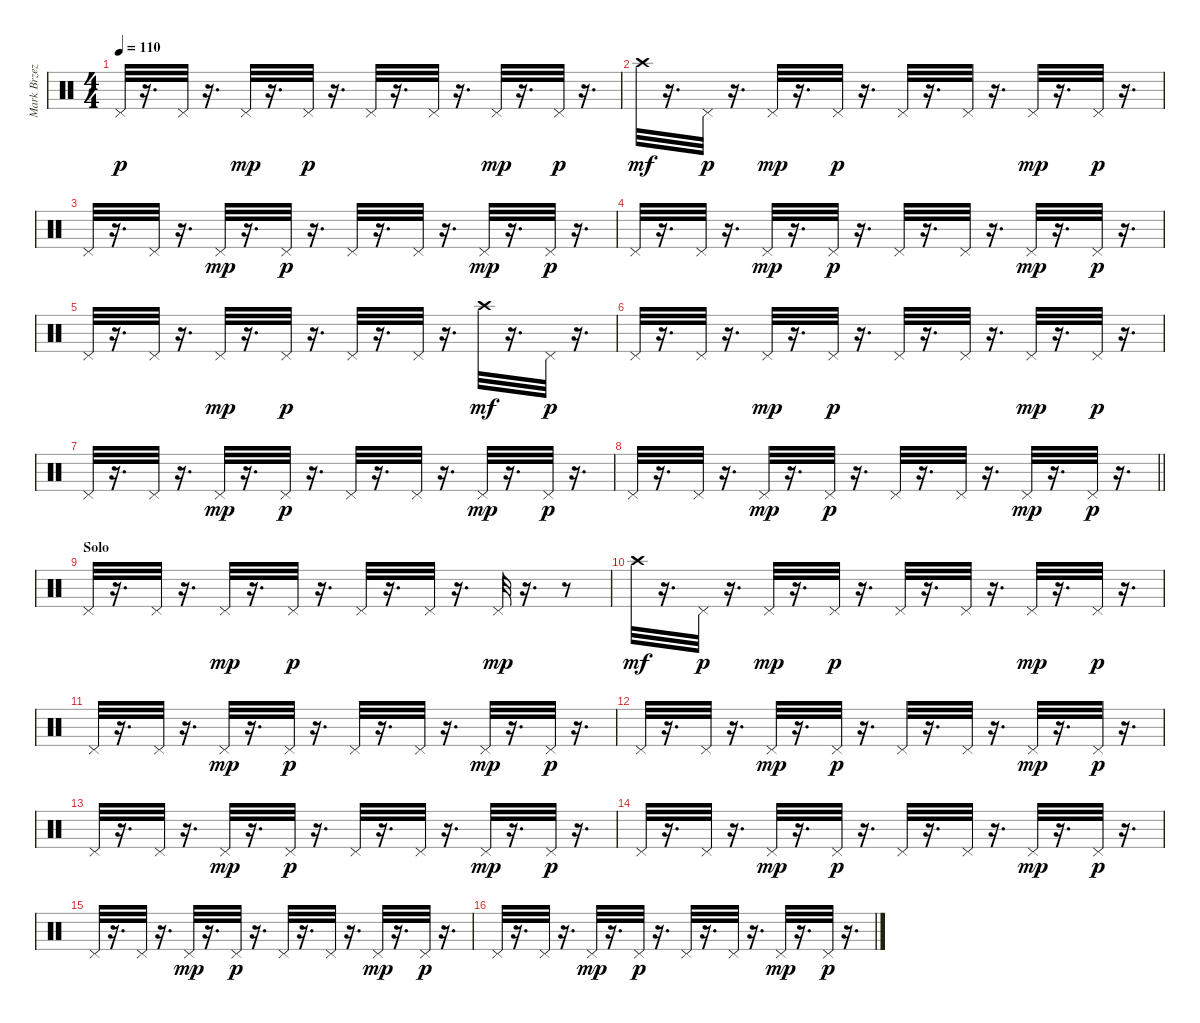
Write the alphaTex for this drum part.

\track ("Mark Brzezicki - Cymbal (Crash, Open & C" "Mark Brzez") {instrument percussion}
\staff {score}
\articulation defaults
\ts (4 4)
\tempo 110
\clef neutral
\ks c "Pedal Hi-Hat (hit)".32{dy p}
r.16{d} "Pedal Hi-Hat (hit)".32 r.16{d} "Pedal Hi-Hat (hit)".32{dy mp} r.16{d} "Pedal Hi-Hat (hit)".32{dy p} r.16{d} "Pedal Hi-Hat (hit)".32 r.16{d} "Pedal Hi-Hat (hit)".32 r.16{d} "Pedal Hi-Hat (hit)".32{dy mp} r.16{d} "Pedal Hi-Hat (hit)".32{dy p} r.16{d} |
"Crash high (hit)".32{dy mf} r.16{d} "Pedal Hi-Hat (hit)".32{dy p} r.16{d} "Pedal Hi-Hat (hit)".32{dy mp} r.16{d} "Pedal Hi-Hat (hit)".32{dy p} r.16{d} "Pedal Hi-Hat (hit)".32 r.16{d} "Pedal Hi-Hat (hit)".32 r.16{d} "Pedal Hi-Hat (hit)".32{dy mp} r.16{d} "Pedal Hi-Hat (hit)".32{dy p} r.16{d} |
"Pedal Hi-Hat (hit)".32 r.16{d} "Pedal Hi-Hat (hit)".32 r.16{d} "Pedal Hi-Hat (hit)".32{dy mp} r.16{d} "Pedal Hi-Hat (hit)".32{dy p} r.16{d} "Pedal Hi-Hat (hit)".32 r.16{d} "Pedal Hi-Hat (hit)".32 r.16{d} "Pedal Hi-Hat (hit)".32{dy mp} r.16{d} "Pedal Hi-Hat (hit)".32{dy p} r.16{d} |
"Pedal Hi-Hat (hit)".32 r.16{d} "Pedal Hi-Hat (hit)".32 r.16{d} "Pedal Hi-Hat (hit)".32{dy mp} r.16{d} "Pedal Hi-Hat (hit)".32{dy p} r.16{d} "Pedal Hi-Hat (hit)".32 r.16{d} "Pedal Hi-Hat (hit)".32 r.16{d} "Pedal Hi-Hat (hit)".32{dy mp} r.16{d} "Pedal Hi-Hat (hit)".32{dy p} r.16{d} |
"Pedal Hi-Hat (hit)".32 r.16{d} "Pedal Hi-Hat (hit)".32 r.16{d} "Pedal Hi-Hat (hit)".32{dy mp} r.16{d} "Pedal Hi-Hat (hit)".32{dy p} r.16{d} "Pedal Hi-Hat (hit)".32 r.16{d} "Pedal Hi-Hat (hit)".32 r.16{d} "Crash high (hit)".32{dy mf} r.16{d} "Pedal Hi-Hat (hit)".32{dy p} r.16{d} |
"Pedal Hi-Hat (hit)".32 r.16{d} "Pedal Hi-Hat (hit)".32 r.16{d} "Pedal Hi-Hat (hit)".32{dy mp} r.16{d} "Pedal Hi-Hat (hit)".32{dy p} r.16{d} "Pedal Hi-Hat (hit)".32 r.16{d} "Pedal Hi-Hat (hit)".32 r.16{d} "Pedal Hi-Hat (hit)".32{dy mp} r.16{d} "Pedal Hi-Hat (hit)".32{dy p} r.16{d} |
"Pedal Hi-Hat (hit)".32 r.16{d} "Pedal Hi-Hat (hit)".32 r.16{d} "Pedal Hi-Hat (hit)".32{dy mp} r.16{d} "Pedal Hi-Hat (hit)".32{dy p} r.16{d} "Pedal Hi-Hat (hit)".32 r.16{d} "Pedal Hi-Hat (hit)".32 r.16{d} "Pedal Hi-Hat (hit)".32{dy mp} r.16{d} "Pedal Hi-Hat (hit)".32{dy p} r.16{d} |
\barLineRight lightlight "Pedal Hi-Hat (hit)".32
r.16{d} "Pedal Hi-Hat (hit)".32 r.16{d} "Pedal Hi-Hat (hit)".32{dy mp} r.16{d} "Pedal Hi-Hat (hit)".32{dy p} r.16{d} "Pedal Hi-Hat (hit)".32 r.16{d} "Pedal Hi-Hat (hit)".32 r.16{d} "Pedal Hi-Hat (hit)".32{dy mp} r.16{d} "Pedal Hi-Hat (hit)".32{dy p} r.16{d} |
\section ("" "Solo")
"Pedal Hi-Hat (hit)".32 r.16{d} "Pedal Hi-Hat (hit)".32 r.16{d} "Pedal Hi-Hat (hit)".32{dy mp} r.16{d} "Pedal Hi-Hat (hit)".32{dy p} r.16{d} "Pedal Hi-Hat (hit)".32 r.16{d} "Pedal Hi-Hat (hit)".32 r.16{d} "Pedal Hi-Hat (hit)".32{dy mp} r.16{d} r.8 |
"Crash high (hit)".32{dy mf} r.16{d} "Pedal Hi-Hat (hit)".32{dy p} r.16{d} "Pedal Hi-Hat (hit)".32{dy mp} r.16{d} "Pedal Hi-Hat (hit)".32{dy p} r.16{d} "Pedal Hi-Hat (hit)".32 r.16{d} "Pedal Hi-Hat (hit)".32 r.16{d} "Pedal Hi-Hat (hit)".32{dy mp} r.16{d} "Pedal Hi-Hat (hit)".32{dy p} r.16{d} |
"Pedal Hi-Hat (hit)".32 r.16{d} "Pedal Hi-Hat (hit)".32 r.16{d} "Pedal Hi-Hat (hit)".32{dy mp} r.16{d} "Pedal Hi-Hat (hit)".32{dy p} r.16{d} "Pedal Hi-Hat (hit)".32 r.16{d} "Pedal Hi-Hat (hit)".32 r.16{d} "Pedal Hi-Hat (hit)".32{dy mp} r.16{d} "Pedal Hi-Hat (hit)".32{dy p} r.16{d} |
"Pedal Hi-Hat (hit)".32 r.16{d} "Pedal Hi-Hat (hit)".32 r.16{d} "Pedal Hi-Hat (hit)".32{dy mp} r.16{d} "Pedal Hi-Hat (hit)".32{dy p} r.16{d} "Pedal Hi-Hat (hit)".32 r.16{d} "Pedal Hi-Hat (hit)".32 r.16{d} "Pedal Hi-Hat (hit)".32{dy mp} r.16{d} "Pedal Hi-Hat (hit)".32{dy p} r.16{d} |
"Pedal Hi-Hat (hit)".32 r.16{d} "Pedal Hi-Hat (hit)".32 r.16{d} "Pedal Hi-Hat (hit)".32{dy mp} r.16{d} "Pedal Hi-Hat (hit)".32{dy p} r.16{d} "Pedal Hi-Hat (hit)".32 r.16{d} "Pedal Hi-Hat (hit)".32 r.16{d} "Pedal Hi-Hat (hit)".32{dy mp} r.16{d} "Pedal Hi-Hat (hit)".32{dy p} r.16{d} |
"Pedal Hi-Hat (hit)".32 r.16{d} "Pedal Hi-Hat (hit)".32 r.16{d} "Pedal Hi-Hat (hit)".32{dy mp} r.16{d} "Pedal Hi-Hat (hit)".32{dy p} r.16{d} "Pedal Hi-Hat (hit)".32 r.16{d} "Pedal Hi-Hat (hit)".32 r.16{d} "Pedal Hi-Hat (hit)".32{dy mp} r.16{d} "Pedal Hi-Hat (hit)".32{dy p} r.16{d} |
"Pedal Hi-Hat (hit)".32 r.16{d} "Pedal Hi-Hat (hit)".32 r.16{d} "Pedal Hi-Hat (hit)".32{dy mp} r.16{d} "Pedal Hi-Hat (hit)".32{dy p} r.16{d} "Pedal Hi-Hat (hit)".32 r.16{d} "Pedal Hi-Hat (hit)".32 r.16{d} "Pedal Hi-Hat (hit)".32{dy mp} r.16{d} "Pedal Hi-Hat (hit)".32{dy p} r.16{d} |
"Pedal Hi-Hat (hit)".32 r.16{d} "Pedal Hi-Hat (hit)".32 r.16{d} "Pedal Hi-Hat (hit)".32{dy mp} r.16{d} "Pedal Hi-Hat (hit)".32{dy p} r.16{d} "Pedal Hi-Hat (hit)".32 r.16{d} "Pedal Hi-Hat (hit)".32 r.16{d} "Pedal Hi-Hat (hit)".32{dy mp} r.16{d} "Pedal Hi-Hat (hit)".32{dy p} r.16{d}
